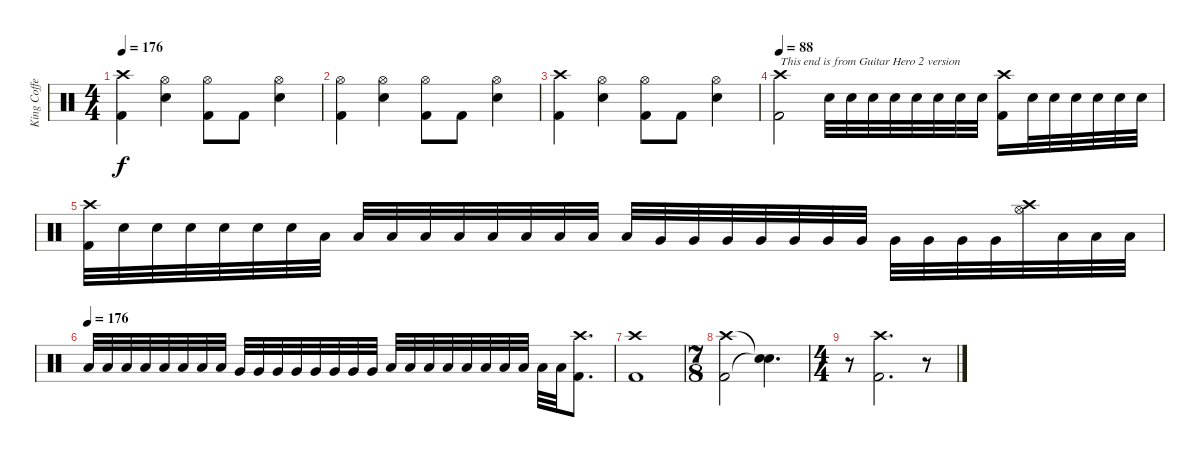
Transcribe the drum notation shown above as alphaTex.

\track ("King Coffey" "King Coffe") {instrument percussion}
\staff {score}
\articulation defaults
\ts (4 4)
\tempo 176
\clef neutral
\ks c
("Crash high (hit)" "Kick (hit) 2").4{dy f} ("Hi-Hat (open)" "Snare (hit) 2").4 ("Hi-Hat (open)" "Kick (hit) 2").8 "Kick (hit) 2".8 ("Hi-Hat (open)" "Snare (hit) 2").4 |
("Hi-Hat (open)" "Kick (hit) 2").4 ("Hi-Hat (open)" "Snare (hit) 2").4 ("Hi-Hat (open)" "Kick (hit) 2").8 "Kick (hit) 2".8 ("Hi-Hat (open)" "Snare (hit) 2").4 |
("Crash high (hit)" "Kick (hit) 2").4 ("Hi-Hat (open)" "Snare (hit) 2").4 ("Hi-Hat (open)" "Kick (hit) 2").8 "Kick (hit) 2".8 ("Hi-Hat (open)" "Snare (hit) 2").4 |
\tempo 88
("Crash high (hit)" "Kick (hit) 2").2{txt "This end is from Guitar Hero 2 version"} "Snare (hit) 2".32 "Snare (hit) 2".32 "Snare (hit) 2".32 "Snare (hit) 2".32 "Snare (hit) 2".32 "Snare (hit) 2".32 "Snare (hit) 2".32 "Snare (hit) 2".32 ("Crash high (hit)" "Kick (hit) 2").16 "Snare (hit) 2".32 "Snare (hit) 2".32 "Snare (hit) 2".32 "Snare (hit) 2".32 "Snare (hit) 2".32 "Snare (hit) 2".32 |
("Crash high (hit)" "Kick (hit) 2").32 "Snare (hit) 2".32 "Snare (hit) 2".32 "Snare (hit) 2".32 "Snare (hit) 2".32 "Snare (hit) 2".32 "Snare (hit) 2".32 "Low Tom (hit)".32 "Low Tom (hit)".32 "Low Tom (hit)".32 "Low Tom (hit)".32 "Low Tom (hit)".32 "Low Tom (hit)".32 "Low Tom (hit)".32 "Low Tom (hit)".32 "Low Tom (hit)".32 "Low Tom (hit)".32 "Very Low Tom (hit)".32 "Very Low Tom (hit)".32 "Very Low Tom (hit)".32 "Very Low Tom (hit)".32 "Very Low Tom (hit)".32 "Very Low Tom (hit)".32 "Very Low Tom (hit)".32 "Very Low Tom (hit)".32 "Very Low Tom (hit)".32 "Very Low Tom (hit)".32 "Very Low Tom (hit)".32 ("Crash high (hit)" "Hi-Hat (open)").32 "Low Tom (hit)".32 "Low Tom (hit)".32 "Low Tom (hit)".32 |
\tempo (176)
"Low Tom (hit)".32 "Low Tom (hit)".32 "Low Tom (hit)".32 "Low Tom (hit)".32 "Low Tom (hit)".32 "Low Tom (hit)".32 "Low Tom (hit)".32 "Low Tom (hit)".32 "Very Low Tom (hit)".32 "Very Low Tom (hit)".32 "Very Low Tom (hit)".32 "Very Low Tom (hit)".32 "Very Low Tom (hit)".32 "Very Low Tom (hit)".32 "Very Low Tom (hit)".32 "Very Low Tom (hit)".32 "Low Floor Tom (hit)".32 "Low Floor Tom (hit)".32 "Low Floor Tom (hit)".32 "Low Floor Tom (hit)".32 "Low Floor Tom (hit)".32 "Low Floor Tom (hit)".32 "Low Floor Tom (hit)".32 "Low Floor Tom (hit)".32 "Low Floor Tom (hit)".32 "Low Floor Tom (hit)".32 ("Crash high (hit)" "Kick (hit) 2").8{d} |
("Crash high (hit)" "Kick (hit) 2").1 |
\ts (7 8)
("Crash high (hit)" "Kick (hit) 2").2{volume 3} ("Snare (hit)"{t} "Snare (hit)"{t}).4{d volume 13} |
\ts (4 4)
r.8 ("Crash high (hit)" "Kick (hit) 2").2{d} r.8
